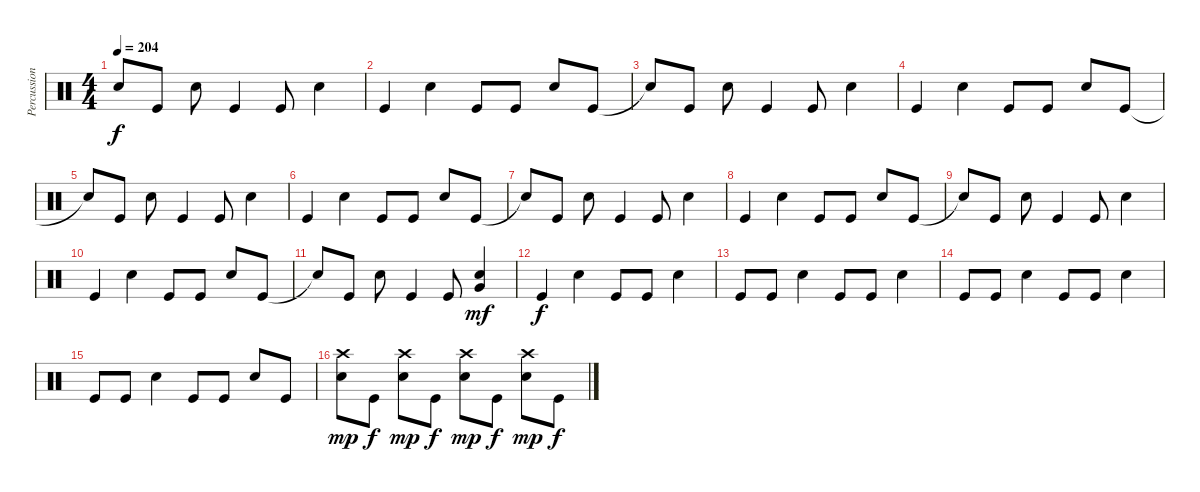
\track ("Percussion" "Percussion") {instrument percussion}
\staff {score}
\articulation defaults
\ts (4 4)
\tempo 204
\clef neutral
\ks c "Snare (hit)"{t}.8{dy f} "Kick (hit)".8 "Electric Snare (hit)".8 "Kick (hit)".4 "Kick (hit)".8 "Electric Snare (hit)".4
|
"Kick (hit)".4 "Electric Snare (hit)".4 "Kick (hit)".8 "Kick (hit)".8 "Electric Snare (hit)".8 "Kick (hit)".8 |
"Snare (hit)"{t}.8 "Kick (hit)".8 "Electric Snare (hit)".8 "Kick (hit)".4 "Kick (hit)".8 "Electric Snare (hit)".4 |
"Kick (hit)".4 "Electric Snare (hit)".4 "Kick (hit)".8 "Kick (hit)".8 "Electric Snare (hit)".8 "Kick (hit)".8 |
"Snare (hit)"{t}.8 "Kick (hit)".8 "Electric Snare (hit)".8 "Kick (hit)".4 "Kick (hit)".8 "Electric Snare (hit)".4 |
"Kick (hit)".4 "Electric Snare (hit)".4 "Kick (hit)".8 "Kick (hit)".8 "Electric Snare (hit)".8 "Kick (hit)".8 |
"Snare (hit)"{t}.8 "Kick (hit)".8 "Electric Snare (hit)".8 "Kick (hit)".4 "Kick (hit)".8 "Electric Snare (hit)".4 |
"Kick (hit)".4 "Electric Snare (hit)".4 "Kick (hit)".8 "Kick (hit)".8 "Electric Snare (hit)".8 "Kick (hit)".8 |
"Snare (hit)"{t}.8 "Kick (hit)".8 "Electric Snare (hit)".8 "Kick (hit)".4 "Kick (hit)".8 "Electric Snare (hit)".4 |
"Kick (hit)".4 "Electric Snare (hit)".4 "Kick (hit)".8 "Kick (hit)".8 "Electric Snare (hit)".8 "Kick (hit)".8 |
"Snare (hit)"{t}.8 "Kick (hit)".8 "Electric Snare (hit)".8 "Kick (hit)".4 "Kick (hit)".8 ("Very Low Tom (hit)" "Electric Snare (hit)").4{dy mf} |
"Kick (hit)".4{dy f} "Electric Snare (hit)".4 "Kick (hit)".8 "Kick (hit)".8 "Electric Snare (hit)".4 |
"Kick (hit)".8 "Kick (hit)".8 "Electric Snare (hit)".4 "Kick (hit)".8 "Kick (hit)".8 "Electric Snare (hit)".4 |
"Kick (hit)".8 "Kick (hit)".8 "Electric Snare (hit)".4 "Kick (hit)".8 "Kick (hit)".8 "Electric Snare (hit)".4 |
"Kick (hit)".8 "Kick (hit)".8 "Electric Snare (hit)".4 "Kick (hit)".8 "Kick (hit)".8 "Electric Snare (hit)".8 "Kick (hit)".8 |
("Crash high (hit)" "Electric Snare (hit)").8{dy mp} "Kick (hit)".8{dy f} ("Crash high (hit)" "Electric Snare (hit)").8{dy mp} "Kick (hit)".8{dy f} ("Crash high (hit)" "Electric Snare (hit)").8{dy mp} "Kick (hit)".8{dy f} ("Crash high (hit)" "Electric Snare (hit)").8{dy mp} "Kick (hit)".8{dy f}
